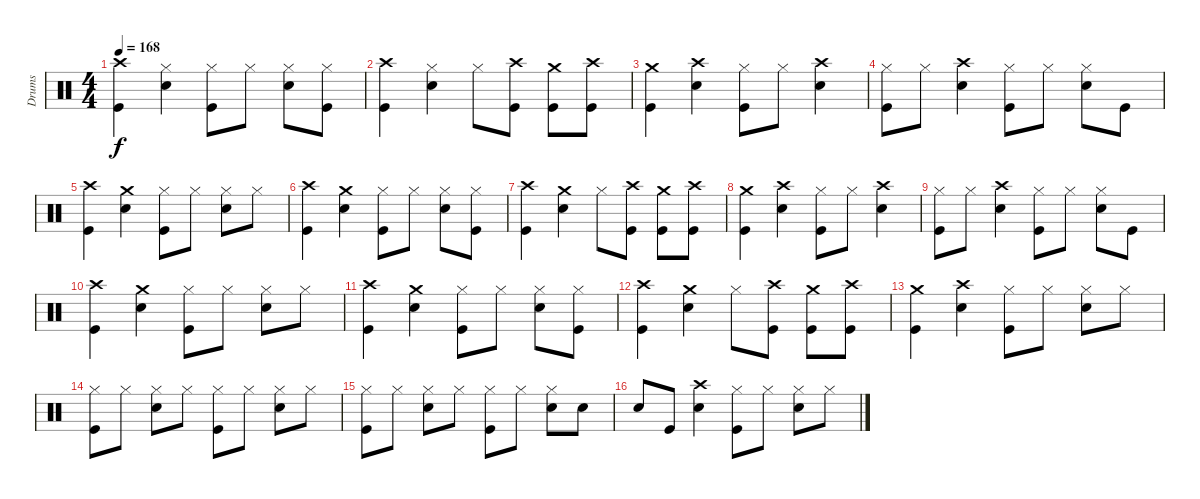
\track ("Drums" "Drums") {instrument percussion}
\staff {score}
\articulation defaults
\ts (4 4)
\tempo 168
\clef neutral
\ks c
("Crash high (hit)" "Kick (hit)").4{dy f} ("Hi-Hat (closed)" "Electric Snare (hit)").4 ("Hi-Hat (closed)" "Kick (hit)").8 "Hi-Hat (closed)".8 ("Hi-Hat (closed)" "Electric Snare (hit)").8 ("Hi-Hat (closed)" "Kick (hit)").8 |
("Crash high (hit)" "Kick (hit)").4 ("Hi-Hat (closed)" "Electric Snare (hit)").4 "Hi-Hat (closed)".8 ("Crash high (hit)" "Kick (hit)").8 ("Crash medium (hit)" "Kick (hit)").8 ("Crash high (hit)" "Kick (hit)").8 |
("Crash medium (hit)" "Kick (hit)").4 ("Crash high (hit)" "Electric Snare (hit)").4 ("Hi-Hat (closed)" "Kick (hit)").8 "Hi-Hat (closed)".8 ("Crash high (hit)" "Electric Snare (hit)").4 |
("Hi-Hat (closed)" "Kick (hit)").8 "Hi-Hat (closed)".8 ("Crash high (hit)" "Electric Snare (hit)").4 ("Hi-Hat (closed)" "Kick (hit)").8 "Hi-Hat (closed)".8 ("Hi-Hat (closed)" "Electric Snare (hit)").8 "Kick (hit)".8 |
("Crash high (hit)" "Kick (hit)").4 ("Crash medium (hit)" "Electric Snare (hit)").4 ("Hi-Hat (closed)" "Kick (hit)").8 "Hi-Hat (closed)".8 ("Hi-Hat (closed)" "Electric Snare (hit)").8 "Hi-Hat (closed)".8 |
("Crash high (hit)" "Kick (hit)").4 ("Crash medium (hit)" "Electric Snare (hit)").4 ("Hi-Hat (closed)" "Kick (hit)").8 "Hi-Hat (closed)".8 ("Hi-Hat (closed)" "Electric Snare (hit)").8 ("Hi-Hat (closed)" "Kick (hit)").8 |
("Crash high (hit)" "Kick (hit)").4 ("Crash medium (hit)" "Electric Snare (hit)").4 "Hi-Hat (closed)".8 ("Crash high (hit)" "Kick (hit)").8 ("Crash medium (hit)" "Kick (hit)").8 ("Crash high (hit)" "Kick (hit)").8 |
("Crash medium (hit)" "Kick (hit)").4 ("Crash high (hit)" "Electric Snare (hit)").4 ("Hi-Hat (closed)" "Kick (hit)").8 "Hi-Hat (closed)".8 ("Crash high (hit)" "Electric Snare (hit)").4 |
("Hi-Hat (closed)" "Kick (hit)").8 "Hi-Hat (closed)".8 ("Crash high (hit)" "Electric Snare (hit)").4 ("Hi-Hat (closed)" "Kick (hit)").8 "Hi-Hat (closed)".8 ("Hi-Hat (closed)" "Electric Snare (hit)").8 "Kick (hit)".8 |
("Crash high (hit)" "Kick (hit)").4 ("Crash medium (hit)" "Electric Snare (hit)").4 ("Hi-Hat (closed)" "Kick (hit)").8 "Hi-Hat (closed)".8 ("Hi-Hat (closed)" "Electric Snare (hit)").8 "Hi-Hat (closed)".8 |
("Crash high (hit)" "Kick (hit)").4 ("Crash medium (hit)" "Electric Snare (hit)").4 ("Hi-Hat (closed)" "Kick (hit)").8 "Hi-Hat (closed)".8 ("Hi-Hat (closed)" "Electric Snare (hit)").8 ("Hi-Hat (closed)" "Kick (hit)").8 |
("Crash high (hit)" "Kick (hit)").4 ("Crash medium (hit)" "Electric Snare (hit)").4 "Hi-Hat (closed)".8 ("Crash high (hit)" "Kick (hit)").8 ("Crash medium (hit)" "Kick (hit)").8 ("Crash high (hit)" "Kick (hit)").8 |
("Crash medium (hit)" "Kick (hit)").4 ("Crash high (hit)" "Electric Snare (hit)").4 ("Hi-Hat (closed)" "Kick (hit)").8 "Hi-Hat (closed)".8 ("Hi-Hat (closed)" "Electric Snare (hit)").8 "Hi-Hat (closed)".8 |
("Hi-Hat (closed)" "Kick (hit)").8 "Hi-Hat (closed)".8 ("Hi-Hat (closed)" "Electric Snare (hit)").8 "Hi-Hat (closed)".8 ("Hi-Hat (closed)" "Kick (hit)").8 "Hi-Hat (closed)".8 ("Hi-Hat (closed)" "Electric Snare (hit)").8 "Hi-Hat (closed)".8 |
("Hi-Hat (closed)" "Kick (hit)").8 "Hi-Hat (closed)".8 ("Hi-Hat (closed)" "Electric Snare (hit)").8 "Hi-Hat (closed)".8 ("Hi-Hat (closed)" "Kick (hit)").8 "Hi-Hat (closed)".8 ("Hi-Hat (closed)" "Electric Snare (hit)").8 "Electric Snare (hit)".8 |
"Electric Snare (hit)".8 "Kick (hit)".8 ("Crash high (hit)" "Electric Snare (hit)").4 ("Hi-Hat (closed)" "Kick (hit)").8 "Hi-Hat (closed)".8 ("Hi-Hat (closed)" "Electric Snare (hit)").8 "Hi-Hat (closed)".8
